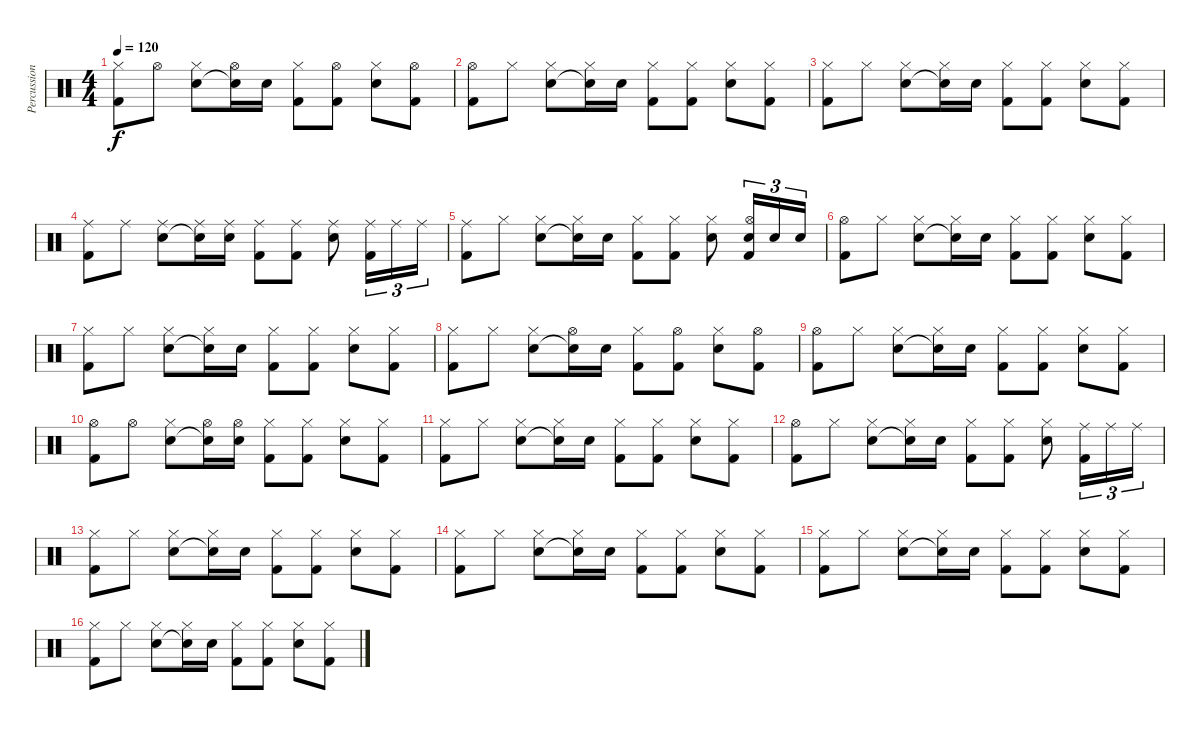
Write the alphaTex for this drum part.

\track ("Percussions" "Percussion") {instrument percussion}
\staff {score}
\articulation defaults
\ts (4 4)
\tempo 120
\clef neutral
\ks c
("Hi-Hat (closed)" "Kick (hit) 2").8{dy f} "Hi-Hat (open)".8 ("Hi-Hat (closed)" "Snare (hit) 2").8 ("Hi-Hat (open)" "Snare (hit)"{t}).16 "Snare (hit) 2".16 ("Hi-Hat (closed)" "Kick (hit) 2").8 ("Hi-Hat (open)" "Kick (hit) 2").8 ("Hi-Hat (closed)" "Snare (hit) 2").8 ("Hi-Hat (open)" "Kick (hit) 2").8 |
("Hi-Hat (open)" "Kick (hit) 2").8 "Hi-Hat (closed)".8 ("Hi-Hat (closed)" "Snare (hit) 2").8 ("Hi-Hat (closed)" "Snare (hit)"{t}).16 "Snare (hit) 2".16 ("Hi-Hat (closed)" "Kick (hit) 2").8 ("Hi-Hat (closed)" "Kick (hit) 2").8 ("Hi-Hat (closed)" "Snare (hit) 2").8 ("Hi-Hat (closed)" "Kick (hit) 2").8 |
("Hi-Hat (closed)" "Kick (hit) 2").8 "Hi-Hat (closed)".8 ("Hi-Hat (closed)" "Snare (hit) 2").8 ("Hi-Hat (closed)" "Snare (hit)"{t}).16 "Snare (hit) 2".16 ("Hi-Hat (closed)" "Kick (hit) 2").8 ("Hi-Hat (closed)" "Kick (hit) 2").8 ("Hi-Hat (closed)" "Snare (hit) 2").8 ("Hi-Hat (closed)" "Kick (hit) 2").8 |
("Ride (middle)" "Kick (hit) 2").8 "Ride (middle)".8 ("Ride (middle)" "Snare (hit) 2").8 ("Ride (middle)" "Snare (hit)"{t}).16 ("Ride (middle)" "Snare (hit) 2").16 ("Ride (middle)" "Kick (hit) 2").8 ("Ride (middle)" "Kick (hit) 2").8 ("Ride (middle)" "Snare (hit) 2").8 ("Ride (middle)" "Kick (hit) 2").16{tu (3 2)} "Ride (middle)".16{tu (3 2)} "Ride (middle)".16{tu (3 2)} |
("Ride (middle)" "Kick (hit) 2").8 "Hi-Hat (closed)".8 ("Hi-Hat (closed)" "Snare (hit) 2").8 ("Hi-Hat (closed)" "Snare (hit)"{t}).16 "Snare (hit) 2".16 ("Hi-Hat (closed)" "Kick (hit) 2").8 ("Hi-Hat (closed)" "Kick (hit) 2").8 ("Hi-Hat (closed)" "Snare (hit) 2").8 ("Hi-Hat (open)" "Snare (hit) 2" "Kick (hit) 2").16{tu (3 2)} "Snare (hit) 2".16{tu (3 2)} "Snare (hit) 2".16{tu (3 2)} |
("Hi-Hat (open)" "Kick (hit) 2").8 "Hi-Hat (closed)".8 ("Hi-Hat (closed)" "Snare (hit) 2").8 ("Hi-Hat (closed)" "Snare (hit)"{t}).16 "Snare (hit) 2".16 ("Hi-Hat (closed)" "Kick (hit) 2").8 ("Hi-Hat (closed)" "Kick (hit) 2").8 ("Hi-Hat (closed)" "Snare (hit) 2").8 ("Hi-Hat (closed)" "Kick (hit) 2").8 |
("Hi-Hat (closed)" "Kick (hit) 2").8 "Hi-Hat (closed)".8 ("Hi-Hat (closed)" "Snare (hit) 2").8 ("Hi-Hat (closed)" "Snare (hit)"{t}).16 "Snare (hit) 2".16 ("Hi-Hat (closed)" "Kick (hit) 2").8 ("Hi-Hat (closed)" "Kick (hit) 2").8 ("Hi-Hat (closed)" "Snare (hit) 2").8 ("Hi-Hat (closed)" "Kick (hit) 2").8 |
("Hi-Hat (closed)" "Kick (hit) 2").8 "Hi-Hat (closed)".8 ("Hi-Hat (closed)" "Snare (hit) 2").8 ("Hi-Hat (open)" "Snare (hit)"{t}).16 "Snare (hit) 2".16 ("Hi-Hat (closed)" "Kick (hit) 2").8 ("Hi-Hat (open)" "Kick (hit) 2").8 ("Hi-Hat (closed)" "Snare (hit) 2").8 ("Hi-Hat (open)" "Kick (hit) 2").8 |
("Hi-Hat (open)" "Kick (hit) 2").8 "Hi-Hat (closed)".8 ("Hi-Hat (closed)" "Snare (hit) 2").8 ("Hi-Hat (closed)" "Snare (hit)"{t}).16 "Snare (hit) 2".16 ("Hi-Hat (closed)" "Kick (hit) 2").8 ("Hi-Hat (closed)" "Kick (hit) 2").8 ("Hi-Hat (closed)" "Snare (hit) 2").8 ("Hi-Hat (closed)" "Kick (hit) 2").8 |
("Hi-Hat (open)" "Kick (hit) 2").8 "Hi-Hat (open)".8 ("Hi-Hat (closed)" "Snare (hit) 2").8 ("Hi-Hat (open)" "Snare (hit)"{t}).16 ("Hi-Hat (open)" "Snare (hit) 2").16 ("Hi-Hat (closed)" "Kick (hit) 2").8 ("Hi-Hat (closed)" "Kick (hit) 2").8 ("Hi-Hat (closed)" "Snare (hit) 2").8 ("Hi-Hat (closed)" "Kick (hit) 2").8 |
("Hi-Hat (closed)" "Kick (hit) 2").8 "Hi-Hat (closed)".8 ("Hi-Hat (closed)" "Snare (hit) 2").8 ("Hi-Hat (closed)" "Snare (hit)"{t}).16 "Snare (hit) 2".16 ("Hi-Hat (closed)" "Kick (hit) 2").8 ("Hi-Hat (closed)" "Kick (hit) 2").8 ("Hi-Hat (closed)" "Snare (hit) 2").8 ("Hi-Hat (closed)" "Kick (hit) 2").8 |
("Hi-Hat (open)" "Kick (hit) 2").8 "Hi-Hat (closed)".8 ("Hi-Hat (closed)" "Snare (hit) 2").8 ("Hi-Hat (closed)" "Snare (hit)"{t}).16 "Snare (hit) 2".16 ("Hi-Hat (closed)" "Kick (hit) 2").8 ("Hi-Hat (closed)" "Kick (hit) 2").8 ("Hi-Hat (closed)" "Snare (hit) 2").8 ("Ride (middle)" "Kick (hit) 2").16{tu (3 2)} "Ride (middle)".16{tu (3 2)} "Ride (middle)".16{tu (3 2)} |
("Hi-Hat (closed)" "Kick (hit) 2").8 "Hi-Hat (closed)".8 ("Hi-Hat (closed)" "Snare (hit) 2").8 ("Hi-Hat (closed)" "Snare (hit)"{t}).16 "Snare (hit) 2".16 ("Hi-Hat (closed)" "Kick (hit) 2").8 ("Hi-Hat (closed)" "Kick (hit) 2").8 ("Hi-Hat (closed)" "Snare (hit) 2").8 ("Hi-Hat (closed)" "Kick (hit) 2").8 |
("Hi-Hat (closed)" "Kick (hit) 2").8 "Hi-Hat (closed)".8 ("Hi-Hat (closed)" "Snare (hit) 2").8 ("Hi-Hat (closed)" "Snare (hit)"{t}).16 "Snare (hit) 2".16 ("Hi-Hat (closed)" "Kick (hit) 2").8 ("Hi-Hat (closed)" "Kick (hit) 2").8 ("Hi-Hat (closed)" "Snare (hit) 2").8 ("Hi-Hat (closed)" "Kick (hit) 2").8 |
("Hi-Hat (closed)" "Kick (hit) 2").8 "Hi-Hat (closed)".8 ("Hi-Hat (closed)" "Snare (hit) 2").8 ("Hi-Hat (closed)" "Snare (hit)"{t}).16 "Snare (hit) 2".16 ("Hi-Hat (closed)" "Kick (hit) 2").8 ("Hi-Hat (closed)" "Kick (hit) 2").8 ("Hi-Hat (closed)" "Snare (hit) 2").8 ("Hi-Hat (closed)" "Kick (hit) 2").8 |
("Hi-Hat (closed)" "Kick (hit) 2").8 "Hi-Hat (closed)".8 ("Hi-Hat (closed)" "Snare (hit) 2").8 ("Hi-Hat (closed)" "Snare (hit)"{t}).16 "Snare (hit) 2".16 ("Hi-Hat (closed)" "Kick (hit) 2").8 ("Hi-Hat (closed)" "Kick (hit) 2").8 ("Hi-Hat (closed)" "Snare (hit) 2").8 ("Hi-Hat (closed)" "Kick (hit) 2").8
